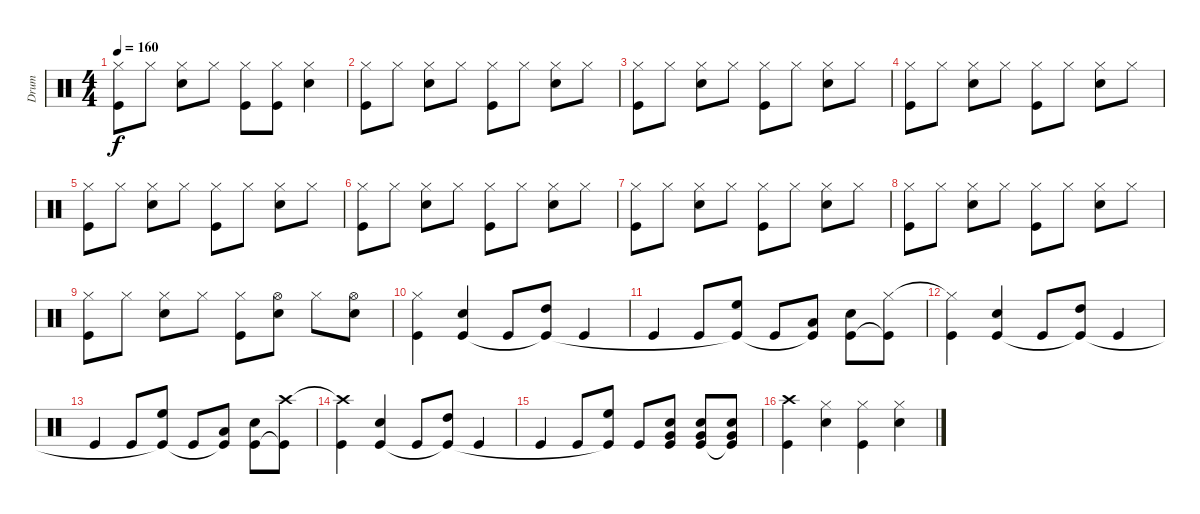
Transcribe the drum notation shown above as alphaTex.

\track ("Drum" "Drum") {instrument percussion}
\staff {score}
\articulation defaults
\ts (4 4)
\tempo 160
\clef neutral
\ks c
("Hi-Hat (closed)" "Kick (hit)").8{dy f} "Hi-Hat (closed)".8 ("Hi-Hat (closed)" "Snare (hit) 2").8 "Hi-Hat (closed)".8 ("Hi-Hat (closed)" "Kick (hit)").8 ("Hi-Hat (closed)" "Kick (hit)").8 ("Hi-Hat (closed)" "Snare (hit) 2").4 |
("Hi-Hat (closed)" "Kick (hit)").8 "Hi-Hat (closed)".8 ("Hi-Hat (closed)" "Snare (hit) 2").8 "Hi-Hat (closed)".8 ("Hi-Hat (closed)" "Kick (hit)").8 "Hi-Hat (closed)".8 ("Hi-Hat (closed)" "Snare (hit) 2").8 "Hi-Hat (closed)".8 |
("Hi-Hat (closed)" "Kick (hit)").8 "Hi-Hat (closed)".8 ("Hi-Hat (closed)" "Snare (hit) 2").8 "Hi-Hat (closed)".8 ("Hi-Hat (closed)" "Kick (hit)").8 "Hi-Hat (closed)".8 ("Hi-Hat (closed)" "Snare (hit) 2").8 "Hi-Hat (closed)".8 |
("Hi-Hat (closed)" "Kick (hit)").8 "Hi-Hat (closed)".8 ("Hi-Hat (closed)" "Snare (hit) 2").8 "Hi-Hat (closed)".8 ("Hi-Hat (closed)" "Kick (hit)").8 "Hi-Hat (closed)".8 ("Hi-Hat (closed)" "Snare (hit) 2").8 "Hi-Hat (closed)".8 |
("Hi-Hat (closed)" "Kick (hit)").8 "Hi-Hat (closed)".8 ("Hi-Hat (closed)" "Snare (hit) 2").8 "Hi-Hat (closed)".8 ("Hi-Hat (closed)" "Kick (hit)").8 "Hi-Hat (closed)".8 ("Hi-Hat (closed)" "Snare (hit) 2").8 "Hi-Hat (closed)".8 |
("Hi-Hat (closed)" "Kick (hit)").8 "Hi-Hat (closed)".8 ("Hi-Hat (closed)" "Snare (hit) 2").8 "Hi-Hat (closed)".8 ("Hi-Hat (closed)" "Kick (hit)").8 "Hi-Hat (closed)".8 ("Hi-Hat (closed)" "Snare (hit) 2").8 "Hi-Hat (closed)".8 |
("Hi-Hat (closed)" "Kick (hit)").8 "Hi-Hat (closed)".8 ("Hi-Hat (closed)" "Snare (hit) 2").8 "Hi-Hat (closed)".8 ("Hi-Hat (closed)" "Kick (hit)").8 "Hi-Hat (closed)".8 ("Hi-Hat (closed)" "Snare (hit) 2").8 "Hi-Hat (closed)".8 |
("Hi-Hat (closed)" "Kick (hit)").8 "Hi-Hat (closed)".8 ("Hi-Hat (closed)" "Snare (hit) 2").8 "Hi-Hat (closed)".8 ("Hi-Hat (closed)" "Kick (hit)").8 "Hi-Hat (closed)".8 ("Hi-Hat (closed)" "Snare (hit) 2").8 "Hi-Hat (closed)".8 |
("Hi-Hat (closed)" "Kick (hit)").8 "Hi-Hat (closed)".8 ("Hi-Hat (closed)" "Snare (hit) 2").8 "Hi-Hat (closed)".8 ("Hi-Hat (closed)" "Kick (hit)").8 ("Hi-Hat (open)" "Snare (hit) 2").8 "Hi-Hat (closed)".8 ("Hi-Hat (open)" "Snare (hit) 2").8 |
("Hi-Hat (closed)" "Kick (hit)").4 ("Snare (hit) 2" "Kick (hit)").4 "Kick (hit)".8 ("High Tom (hit)" "Kick (hit)"{t}).8 "Kick (hit)".4 |
"Kick (hit)".4 "Kick (hit)".8 ("High Floor Tom (hit)" "Kick (hit)"{t}).8 "Kick (hit)".8 ("Low Tom (hit)" "Kick (hit)"{t}).8 ("Snare (hit) 2" "Kick (hit)").8 ("Hi-Hat (closed)" "Kick (hit)"{t}).8 |
("Hi-Hat (closed)"{t} "Kick (hit)").4 ("Snare (hit) 2" "Kick (hit)").4 "Kick (hit)".8 ("High Tom (hit)" "Kick (hit)"{t}).8 "Kick (hit)".4 |
"Kick (hit)".4 "Kick (hit)".8 ("High Floor Tom (hit)" "Kick (hit)"{t}).8 "Kick (hit)".8 ("Low Tom (hit)" "Kick (hit)"{t}).8 ("Snare (hit) 2" "Kick (hit)").8 ("Crash high (hit)" "Kick (hit)"{t}).8 |
("Crash high (hit)"{t} "Kick (hit)").4 ("Snare (hit) 2" "Kick (hit)").4 "Kick (hit)".8 ("High Tom (hit)" "Kick (hit)"{t}).8 "Kick (hit)".4 |
"Kick (hit)".4 "Kick (hit)".8 ("High Floor Tom (hit)" "Kick (hit)"{t}).8 "Kick (hit)".8 ("Very Low Tom (hit)" "Snare (hit) 2" "Kick (hit)").8 ("Very Low Tom (hit)" "Snare (hit) 2" "Kick (hit)").8 ("Very Low Tom (hit)" "Snare (hit) 2" "Kick (hit)"{t}).8 |
("Crash high (hit)" "Kick (hit)").4 ("Hi-Hat (closed)" "Snare (hit) 2").4 ("Hi-Hat (closed)" "Kick (hit)").4 ("Hi-Hat (closed)" "Snare (hit) 2").4
